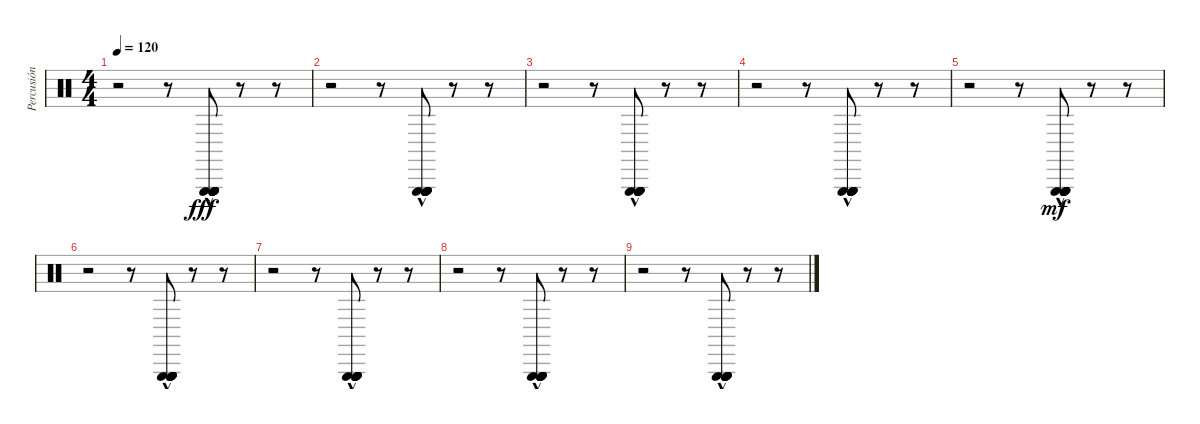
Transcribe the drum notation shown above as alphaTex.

\track ("Percusión" "Percusión") {instrument percussion}
\staff {score}
\articulation defaults
\ts (4 4)
\tempo 120
\clef neutral
\ks c
r.2{dy fff} r.8 ("Triangle (hit)" "Triangle (hit)" "Triangle (hit)" "Triangle (hit)" "Triangle (hit)" "Triangle (hit)"{hac}).8 r.8 r.8 |
r.2 r.8 ("Triangle (hit)" "Triangle (hit)" "Triangle (hit)" "Triangle (hit)" "Triangle (hit)" "Triangle (hit)"{hac}).8 r.8 r.8 |
r.2 r.8 ("Triangle (hit)" "Triangle (hit)" "Triangle (hit)" "Triangle (hit)" "Triangle (hit)" "Triangle (hit)"{hac}).8 r.8 r.8 |
r.2 r.8 ("Triangle (hit)" "Triangle (hit)" "Triangle (hit)" "Triangle (hit)" "Triangle (hit)" "Triangle (hit)"{hac}).8 r.8 r.8 |
r.2 r.8 ("Triangle (hit)" "Triangle (hit)" "Triangle (hit)" "Triangle (hit)" "Triangle (hit)" "Triangle (hit)"{hac}).8{dy mf} r.8 r.8 |
r.2 r.8 ("Triangle (hit)" "Triangle (hit)" "Triangle (hit)" "Triangle (hit)" "Triangle (hit)" "Triangle (hit)"{hac}).8 r.8 r.8 |
r.2 r.8 ("Triangle (hit)" "Triangle (hit)" "Triangle (hit)" "Triangle (hit)" "Triangle (hit)" "Triangle (hit)"{hac}).8 r.8 r.8 |
r.2 r.8 ("Triangle (hit)" "Triangle (hit)" "Triangle (hit)" "Triangle (hit)" "Triangle (hit)" "Triangle (hit)"{hac}).8 r.8 r.8 |
r.2 r.8 ("Triangle (hit)" "Triangle (hit)" "Triangle (hit)" "Triangle (hit)" "Triangle (hit)" "Triangle (hit)"{hac}).8 r.8 r.8
